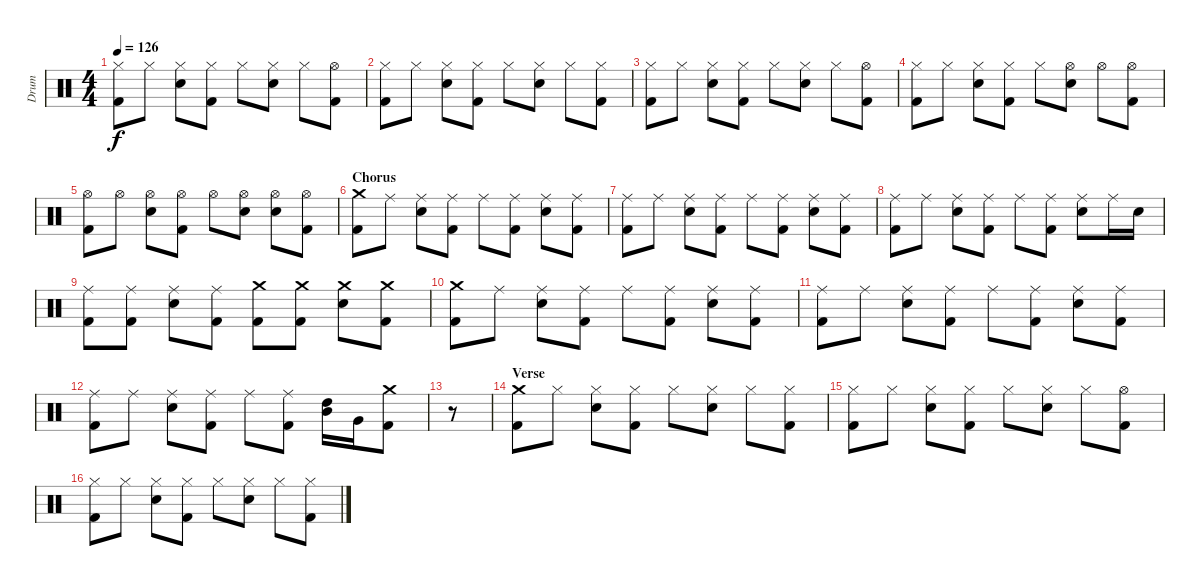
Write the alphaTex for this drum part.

\track ("Drum" "Drum") {instrument percussion}
\staff {score}
\articulation defaults
\ts (4 4)
\tempo 126
\clef neutral
\ks c
("Hi-Hat (closed)" "Kick (hit) 2").8{dy f} "Hi-Hat (closed)".8 ("Hi-Hat (closed)" "Snare (hit) 2").8 ("Hi-Hat (closed)" "Kick (hit) 2").8 "Hi-Hat (closed)".8 ("Hi-Hat (closed)" "Snare (hit) 2").8 "Hi-Hat (closed)".8 ("Hi-Hat (open)" "Kick (hit) 2").8 |
("Hi-Hat (closed)" "Kick (hit) 2").8 "Hi-Hat (closed)".8 ("Hi-Hat (closed)" "Snare (hit) 2").8 ("Hi-Hat (closed)" "Kick (hit) 2").8 "Hi-Hat (closed)".8 ("Hi-Hat (closed)" "Snare (hit) 2").8 "Hi-Hat (closed)".8 ("Hi-Hat (closed)" "Kick (hit) 2").8 |
("Hi-Hat (closed)" "Kick (hit) 2").8 "Hi-Hat (closed)".8 ("Hi-Hat (closed)" "Snare (hit) 2").8 ("Hi-Hat (closed)" "Kick (hit) 2").8 "Hi-Hat (closed)".8 ("Hi-Hat (closed)" "Snare (hit) 2").8 "Hi-Hat (closed)".8 ("Hi-Hat (open)" "Kick (hit) 2").8 |
("Hi-Hat (closed)" "Kick (hit) 2").8 "Hi-Hat (closed)".8 ("Hi-Hat (closed)" "Snare (hit) 2").8 ("Hi-Hat (closed)" "Kick (hit) 2").8 "Hi-Hat (closed)".8 ("Hi-Hat (open)" "Snare (hit) 2").8 "Hi-Hat (open)".8 ("Hi-Hat (open)" "Kick (hit) 2").8 |
("Hi-Hat (open)" "Kick (hit) 2").8 "Hi-Hat (open)".8 ("Hi-Hat (open)" "Snare (hit) 2").8 ("Hi-Hat (open)" "Kick (hit) 2").8 "Hi-Hat (open)".8 ("Hi-Hat (open)" "Snare (hit) 2").8 ("Hi-Hat (open)" "Snare (hit) 2").8 ("Hi-Hat (open)" "Kick (hit) 2").8 |
\section ("" "Chorus")
("Crash medium (hit)" "Kick (hit) 2").8 "Ride (middle)".8 ("Ride (middle)" "Snare (hit) 2").8 ("Ride (middle)" "Kick (hit) 2").8 "Ride (middle)".8 ("Ride (middle)" "Kick (hit) 2").8 ("Ride (middle)" "Snare (hit) 2").8 ("Ride (middle)" "Kick (hit) 2").8 |
("Ride (middle)" "Kick (hit) 2").8 "Ride (middle)".8 ("Ride (middle)" "Snare (hit) 2").8 ("Ride (middle)" "Kick (hit) 2").8 "Ride (middle)".8 ("Ride (middle)" "Kick (hit) 2").8 ("Ride (middle)" "Snare (hit) 2").8 ("Ride (middle)" "Kick (hit) 2").8 |
("Ride (middle)" "Kick (hit) 2").8 "Ride (middle)".8 ("Ride (middle)" "Snare (hit) 2").8 ("Ride (middle)" "Kick (hit) 2").8 "Ride (middle)".8 ("Ride (middle)" "Kick (hit) 2").8 ("Ride (middle)" "Snare (hit) 2").8 "Ride (middle)".16 "Snare (hit) 2".16 |
("Ride (middle)" "Kick (hit) 2").8 ("Ride (middle)" "Kick (hit) 2").8 ("Ride (middle)" "Snare (hit) 2").8 ("Ride (middle)" "Kick (hit) 2").8 ("Crash medium (hit)" "Kick (hit) 2").8 ("Crash medium (hit)" "Kick (hit) 2").8 ("Crash medium (hit)" "Snare (hit) 2").8 ("Crash medium (hit)" "Kick (hit) 2").8 |
("Crash medium (hit)" "Kick (hit) 2").8 "Ride (middle)".8 ("Ride (middle)" "Snare (hit) 2").8 ("Ride (middle)" "Kick (hit) 2").8 "Ride (middle)".8 ("Ride (middle)" "Kick (hit) 2").8 ("Ride (middle)" "Snare (hit) 2").8 ("Ride (middle)" "Kick (hit) 2").8 |
("Ride (middle)" "Kick (hit) 2").8 "Ride (middle)".8 ("Ride (middle)" "Snare (hit) 2").8 ("Ride (middle)" "Kick (hit) 2").8 "Ride (middle)".8 ("Ride (middle)" "Kick (hit) 2").8 ("Ride (middle)" "Snare (hit) 2").8 ("Ride (middle)" "Kick (hit) 2").8 |
("Ride (middle)" "Kick (hit) 2").8 "Ride (middle)".8 ("Ride (middle)" "Snare (hit) 2").8 ("Ride (middle)" "Kick (hit) 2").8 "Ride (middle)".8 ("Ride (middle)" "Kick (hit) 2").8 ("High Tom (hit)" "Mid Tom (hit)").16 "Very Low Tom (hit)".16 ("Crash medium (hit)" "Kick (hit) 2").8 |
r.8 |
\section ("" "Verse")
("Crash medium (hit)" "Kick (hit) 2").8 "Hi-Hat (closed)".8 ("Hi-Hat (closed)" "Snare (hit) 2").8 ("Hi-Hat (closed)" "Kick (hit) 2").8 "Hi-Hat (closed)".8 ("Hi-Hat (closed)" "Snare (hit) 2").8 "Hi-Hat (closed)".8 ("Hi-Hat (closed)" "Kick (hit) 2").8 |
("Hi-Hat (closed)" "Kick (hit) 2").8 "Hi-Hat (closed)".8 ("Hi-Hat (closed)" "Snare (hit) 2").8 ("Hi-Hat (closed)" "Kick (hit) 2").8 "Hi-Hat (closed)".8 ("Hi-Hat (closed)" "Snare (hit) 2").8 "Hi-Hat (closed)".8 ("Hi-Hat (open)" "Kick (hit) 2").8 |
("Hi-Hat (closed)" "Kick (hit) 2").8 "Hi-Hat (closed)".8 ("Hi-Hat (closed)" "Snare (hit) 2").8 ("Hi-Hat (closed)" "Kick (hit) 2").8 "Hi-Hat (closed)".8 ("Hi-Hat (closed)" "Snare (hit) 2").8 "Hi-Hat (closed)".8 ("Hi-Hat (closed)" "Kick (hit) 2").8
